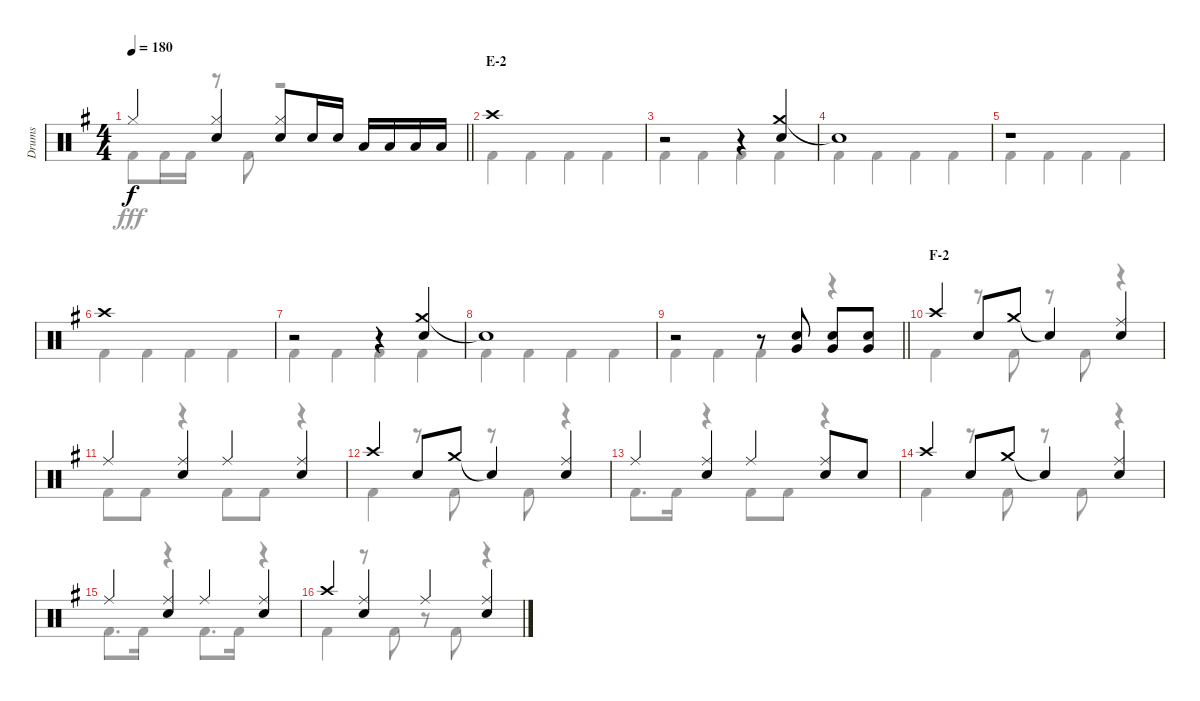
\track ("Drums" "Drums") {instrument percussion}
\staff {score}
\articulation defaults
\voice
\ts (4 4)
\tempo 180
\clef neutral
\barLineRight lightlight
\ks g "Hi-Hat (closed)".4{dy f}
("Hi-Hat (closed)" "Snare (hit) 2").4 ("Hi-Hat (closed)" "Snare (hit) 2").8 "Snare (hit) 2".16 "Snare (hit) 2".16 "Low Tom (hit)".16 "Low Tom (hit)".16 "Low Tom (hit)".16 "Low Tom (hit)".16 |
\section ("" "E-2")
"Crash high (hit)".1 |
r.2 r.4 ("Crash medium (hit)" "Snare (hit) 2").4 |
"Snare (hit)"{t}.1 |
r.1 |
"Crash high (hit)".1 |
r.2 r.4 ("Crash medium (hit)" "Snare (hit) 2").4 |
"Snare (hit)"{t}.1 |
\barLineRight lightlight
r.2 r.8 ("Snare (hit) 2" "Very Low Tom (hit)").8 ("Snare (hit) 2" "Very Low Tom (hit)").8 ("Snare (hit) 2" "Very Low Tom (hit)").8 |
\section ("" "F-2")
"Crash high (hit)".4 "Snare (hit) 2".8 "Crash medium (hit)".8 "Snare (hit)"{t}.4 ("Ride (middle)" "Snare (hit) 2").4 |
"Ride (middle)".4 ("Ride (middle)" "Snare (hit) 2").4 "Ride (middle)".4 ("Ride (middle)" "Snare (hit) 2").4 |
"Crash high (hit)".4 "Snare (hit) 2".8 "Crash medium (hit)".8 "Snare (hit)"{t}.4 ("Ride (middle)" "Snare (hit) 2").4 |
"Ride (middle)".4 ("Ride (middle)" "Snare (hit) 2").4 "Ride (middle)".4 ("Ride (middle)" "Snare (hit) 2").8 "Snare (hit) 2".8 |
"Crash high (hit)".4 "Snare (hit) 2".8 "Crash medium (hit)".8 "Snare (hit)"{t}.4 ("Ride (middle)" "Snare (hit) 2").4 |
"Ride (middle)".4 ("Ride (middle)" "Snare (hit) 2").4 "Ride (middle)".4 ("Ride (middle)" "Snare (hit) 2").4 |
"Crash high (hit)".4 ("Ride (middle)" "Snare (hit) 2").4 "Ride (middle)".4 ("Ride (middle)" "Snare (hit) 2").4
\voice
\clef neutral
\ottava regular
\simile none
\barLineRight lightlight
\ks g "Kick (hit) 2".8{dy fff} "Kick (hit) 2".16 "Kick (hit) 2".16
r.8 "Kick (hit) 2".8 r.2 |
"Kick (hit) 2".4 "Kick (hit) 2".4 "Kick (hit) 2".4 "Kick (hit) 2".4 |
"Kick (hit) 2".4 "Kick (hit) 2".4 "Kick (hit) 2".4 "Kick (hit) 2".4 |
"Kick (hit) 2".4 "Kick (hit) 2".4 "Kick (hit) 2".4 "Kick (hit) 2".4 |
"Kick (hit) 2".4 "Kick (hit) 2".4 "Kick (hit) 2".4 "Kick (hit) 2".4 |
"Kick (hit) 2".4 "Kick (hit) 2".4 "Kick (hit) 2".4 "Kick (hit) 2".4 |
"Kick (hit) 2".4 "Kick (hit) 2".4 "Kick (hit) 2".4 "Kick (hit) 2".4 |
"Kick (hit) 2".4 "Kick (hit) 2".4 "Kick (hit) 2".4 "Kick (hit) 2".4 |
\barLineRight lightlight "Kick (hit) 2".4 "Kick (hit) 2".4 "Kick (hit) 2".4
r.4 |
"Kick (hit) 2".4 r.8 "Kick (hit) 2".8 r.8 "Kick (hit) 2".8 r.4 |
"Kick (hit) 2".8 "Kick (hit) 2".8 r.4 "Kick (hit) 2".8 "Kick (hit) 2".8 r.4 |
"Kick (hit) 2".4 r.8 "Kick (hit) 2".8 r.8 "Kick (hit) 2".8 r.4 |
"Kick (hit) 2".8{d} "Kick (hit) 2".16 r.4 "Kick (hit) 2".8 "Kick (hit) 2".8 r.4 |
"Kick (hit) 2".4 r.8 "Kick (hit) 2".8 r.8 "Kick (hit) 2".8 r.4 |
"Kick (hit) 2".8{d} "Kick (hit) 2".16 r.4 "Kick (hit) 2".8{d} "Kick (hit) 2".16 r.4 |
"Kick (hit) 2".4 r.8 "Kick (hit) 2".8 r.8 "Kick (hit) 2".8 r.4
